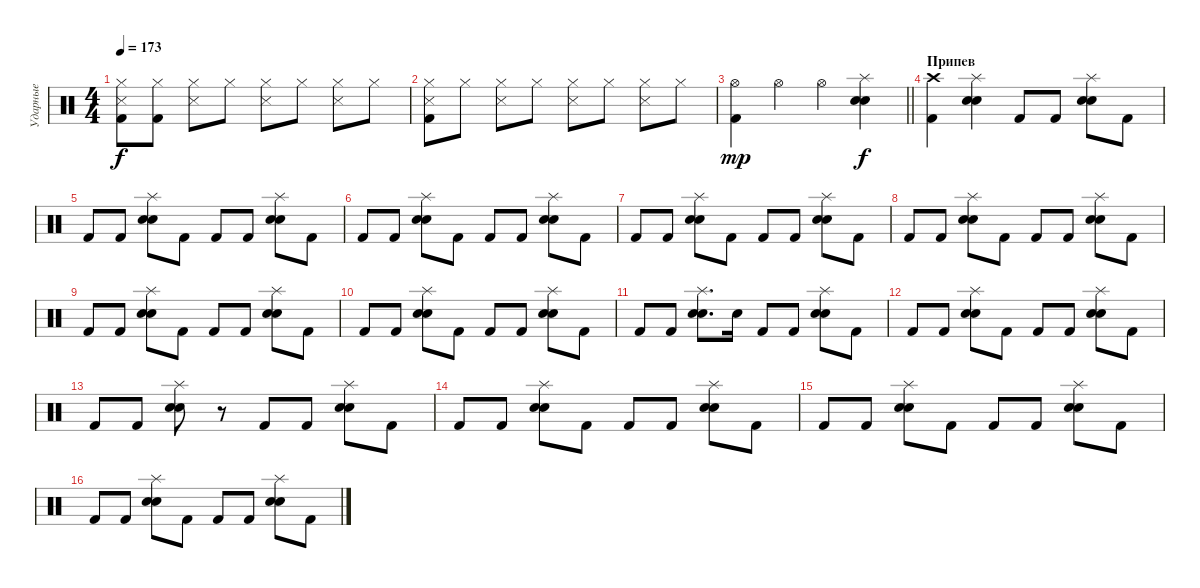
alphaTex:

\track ("Ударные" "Ударные") {instrument percussion}
\staff {score}
\articulation defaults
\ts (4 4)
\tempo 173
\clef neutral
\ks c
("Hi-Hat (closed)" "Snare (side stick) 3" "Kick (hit) 2").8{dy f} ("Hi-Hat (closed)" "Kick (hit) 2").8 ("Hi-Hat (closed)" "Snare (side stick) 3").8 "Hi-Hat (closed)".8 ("Hi-Hat (closed)" "Snare (side stick) 3").8 "Hi-Hat (closed)".8 ("Hi-Hat (closed)" "Snare (side stick) 3").8 "Hi-Hat (closed)".8 |
("Hi-Hat (closed)" "Snare (side stick) 3" "Kick (hit) 2").8 "Hi-Hat (closed)".8 ("Hi-Hat (closed)" "Snare (side stick) 3").8 "Hi-Hat (closed)".8 ("Hi-Hat (closed)" "Snare (side stick) 3").8 "Hi-Hat (closed)".8 ("Hi-Hat (closed)" "Snare (side stick) 3").8 "Hi-Hat (closed)".8 |
\barLineRight lightlight
("Hi-Hat (open)" "Kick (hit) 2").4{dy mp} "Hi-Hat (open)".4 "Hi-Hat (open)".4 ("Splash (hit)" "Electric Snare (hit)" "Snare (hit) 2").4{dy f} |
\section ("" "Припев")
("Crash high (hit)" "Kick (hit) 2").4 ("Splash (hit)" "Electric Snare (hit)" "Snare (hit) 2").4 "Kick (hit) 2".8 "Kick (hit) 2".8 ("Splash (hit)" "Electric Snare (hit)" "Snare (hit) 2").8 "Kick (hit) 2".8 |
"Kick (hit) 2".8 "Kick (hit) 2".8 ("Splash (hit)" "Electric Snare (hit)" "Snare (hit) 2").8 "Kick (hit) 2".8 "Kick (hit) 2".8 "Kick (hit) 2".8 ("Splash (hit)" "Electric Snare (hit)" "Snare (hit) 2").8 "Kick (hit) 2".8 |
"Kick (hit) 2".8 "Kick (hit) 2".8 ("Splash (hit)" "Electric Snare (hit)" "Snare (hit) 2").8 "Kick (hit) 2".8 "Kick (hit) 2".8 "Kick (hit) 2".8 ("Splash (hit)" "Electric Snare (hit)" "Snare (hit) 2").8 "Kick (hit) 2".8 |
"Kick (hit) 2".8 "Kick (hit) 2".8 ("Splash (hit)" "Electric Snare (hit)" "Snare (hit) 2").8 "Kick (hit) 2".8 "Kick (hit) 2".8 "Kick (hit) 2".8 ("Splash (hit)" "Electric Snare (hit)" "Snare (hit) 2").8 "Kick (hit) 2".8 |
"Kick (hit) 2".8 "Kick (hit) 2".8 ("Splash (hit)" "Electric Snare (hit)" "Snare (hit) 2").8 "Kick (hit) 2".8 "Kick (hit) 2".8 "Kick (hit) 2".8 ("Splash (hit)" "Electric Snare (hit)" "Snare (hit) 2").8 "Kick (hit) 2".8 |
"Kick (hit) 2".8 "Kick (hit) 2".8 ("Splash (hit)" "Electric Snare (hit)" "Snare (hit) 2").8 "Kick (hit) 2".8 "Kick (hit) 2".8 "Kick (hit) 2".8 ("Splash (hit)" "Electric Snare (hit)" "Snare (hit) 2").8 "Kick (hit) 2".8 |
"Kick (hit) 2".8 "Kick (hit) 2".8 ("Splash (hit)" "Electric Snare (hit)" "Snare (hit) 2").8 "Kick (hit) 2".8 "Kick (hit) 2".8 "Kick (hit) 2".8 ("Splash (hit)" "Electric Snare (hit)" "Snare (hit) 2").8 "Kick (hit) 2".8 |
"Kick (hit) 2".8 "Kick (hit) 2".8 ("Splash (hit)" "Electric Snare (hit)" "Snare (hit) 2").8{d} "Electric Snare (hit)".16 "Kick (hit) 2".8 "Kick (hit) 2".8 ("Splash (hit)" "Electric Snare (hit)" "Snare (hit) 2").8 "Kick (hit) 2".8 |
"Kick (hit) 2".8 "Kick (hit) 2".8 ("Splash (hit)" "Electric Snare (hit)" "Snare (hit) 2").8 "Kick (hit) 2".8 "Kick (hit) 2".8 "Kick (hit) 2".8 ("Splash (hit)" "Electric Snare (hit)" "Snare (hit) 2").8 "Kick (hit) 2".8 |
"Kick (hit) 2".8 "Kick (hit) 2".8 ("Splash (hit)" "Electric Snare (hit)" "Snare (hit) 2").8 r.8 "Kick (hit) 2".8 "Kick (hit) 2".8 ("Splash (hit)" "Electric Snare (hit)" "Snare (hit) 2").8 "Kick (hit) 2".8 |
"Kick (hit) 2".8 "Kick (hit) 2".8 ("Splash (hit)" "Electric Snare (hit)" "Snare (hit) 2").8 "Kick (hit) 2".8 "Kick (hit) 2".8 "Kick (hit) 2".8 ("Splash (hit)" "Electric Snare (hit)" "Snare (hit) 2").8 "Kick (hit) 2".8 |
"Kick (hit) 2".8 "Kick (hit) 2".8 ("Splash (hit)" "Electric Snare (hit)" "Snare (hit) 2").8 "Kick (hit) 2".8 "Kick (hit) 2".8 "Kick (hit) 2".8 ("Splash (hit)" "Electric Snare (hit)" "Snare (hit) 2").8 "Kick (hit) 2".8 |
"Kick (hit) 2".8 "Kick (hit) 2".8 ("Splash (hit)" "Electric Snare (hit)" "Snare (hit) 2").8 "Kick (hit) 2".8 "Kick (hit) 2".8 "Kick (hit) 2".8 ("Splash (hit)" "Electric Snare (hit)" "Snare (hit) 2").8 "Kick (hit) 2".8
